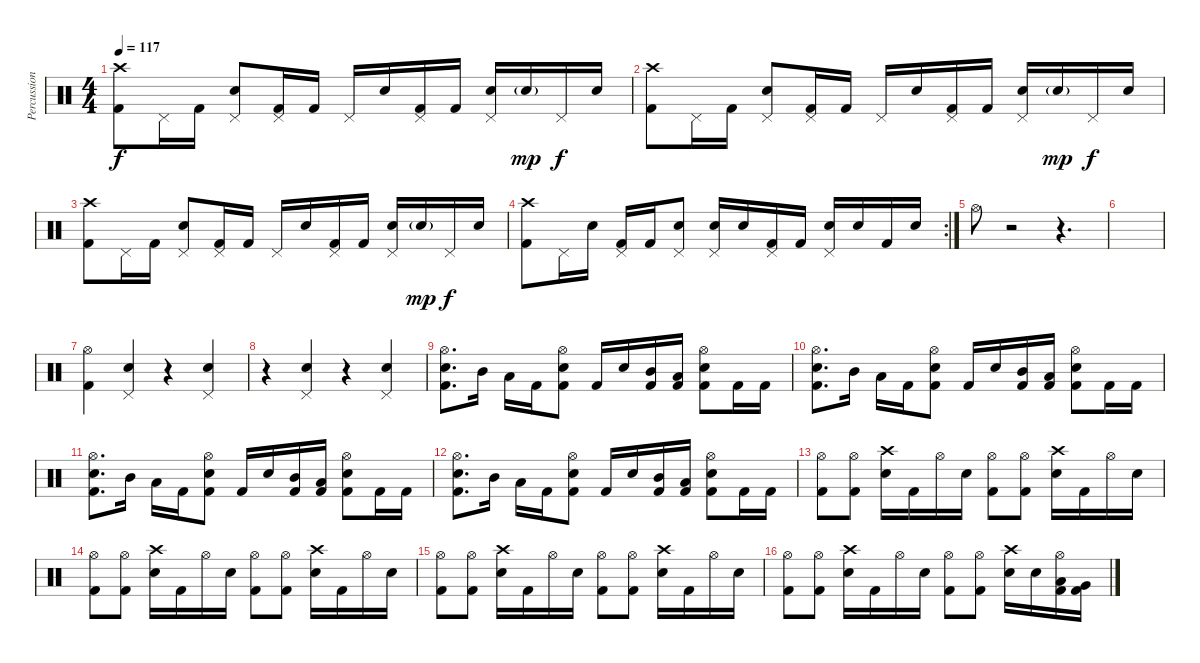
\track ("Percussion" "Percussion") {instrument percussion}
\staff {score}
\articulation defaults
\ts (4 4)
\tempo 117
\clef neutral
\ks c
("Crash high (hit)" "Kick (hit) 2").8{dy f} "Pedal Hi-Hat (hit)".16 "Kick (hit) 2".16 ("Pedal Hi-Hat (hit)" "Snare (hit) 2").8 ("Pedal Hi-Hat (hit)" "Kick (hit) 2").16 "Kick (hit) 2".16 "Pedal Hi-Hat (hit)".16 "Snare (hit) 2".16 ("Pedal Hi-Hat (hit)" "Kick (hit) 2").16 "Kick (hit) 2".16 ("Pedal Hi-Hat (hit)" "Snare (hit) 2").16 "Snare (hit) 2"{g}.16{dy mp} "Pedal Hi-Hat (hit)".16{dy f} "Snare (hit) 2".16 |
("Crash high (hit)" "Kick (hit) 2").8 "Pedal Hi-Hat (hit)".16 "Kick (hit) 2".16 ("Pedal Hi-Hat (hit)" "Snare (hit) 2").8 ("Pedal Hi-Hat (hit)" "Kick (hit) 2").16 "Kick (hit) 2".16 "Pedal Hi-Hat (hit)".16 "Snare (hit) 2".16 ("Pedal Hi-Hat (hit)" "Kick (hit) 2").16 "Kick (hit) 2".16 ("Pedal Hi-Hat (hit)" "Snare (hit) 2").16 "Snare (hit) 2"{g}.16{dy mp} "Pedal Hi-Hat (hit)".16{dy f} "Snare (hit) 2".16 |
("Crash high (hit)" "Kick (hit) 2").8 "Pedal Hi-Hat (hit)".16 "Kick (hit) 2".16 ("Pedal Hi-Hat (hit)" "Snare (hit) 2").8 ("Pedal Hi-Hat (hit)" "Kick (hit) 2").16 "Kick (hit) 2".16 "Pedal Hi-Hat (hit)".16 "Snare (hit) 2".16 ("Pedal Hi-Hat (hit)" "Kick (hit) 2").16 "Kick (hit) 2".16 ("Pedal Hi-Hat (hit)" "Snare (hit) 2").16 "Snare (hit) 2"{g}.16{dy mp} "Pedal Hi-Hat (hit)".16{dy f} "Snare (hit) 2".16 |
\rc 2
("Crash high (hit)" "Kick (hit) 2").8 "Pedal Hi-Hat (hit)".16 "Snare (hit) 2".16 ("Pedal Hi-Hat (hit)" "Kick (hit) 2").16 "Kick (hit) 2".16 ("Pedal Hi-Hat (hit)" "Snare (hit) 2").8 ("Pedal Hi-Hat (hit)" "Snare (hit) 2").16 "Snare (hit) 2".16 ("Pedal Hi-Hat (hit)" "Kick (hit) 2").16 "Kick (hit) 2".16 ("Pedal Hi-Hat (hit)" "Snare (hit) 2").16 "Snare (hit) 2".16 "Kick (hit) 2".16 "Snare (hit) 2".16 |
"Hi-Hat (open)".8 r.2 r.4{d} |
|
("Hi-Hat (open)" "Kick (hit) 2").4 ("Pedal Hi-Hat (hit)" "Snare (hit) 2").4 r.4 ("Pedal Hi-Hat (hit)" "Snare (hit) 2").4 |
r.4 ("Pedal Hi-Hat (hit)" "Snare (hit) 2").4 r.4 ("Pedal Hi-Hat (hit)" "Snare (hit) 2").4 |
("Hi-Hat (open)" "Snare (hit) 2" "Kick (hit) 2").8{d} "Mid Tom (hit)".16 "Low Tom (hit)".16 "Kick (hit) 2".16 ("Hi-Hat (open)" "Snare (hit) 2" "Kick (hit) 2").8 "Kick (hit) 2".16 "Snare (hit) 2".16 ("Mid Tom (hit)" "Kick (hit) 2").16 ("Low Tom (hit)" "Kick (hit) 2").16 ("Hi-Hat (open)" "Snare (hit) 2" "Kick (hit) 2").8 "Kick (hit) 2".16 "Kick (hit) 2".16 |
("Hi-Hat (open)" "Snare (hit) 2" "Kick (hit) 2").8{d} "Mid Tom (hit)".16 "Low Tom (hit)".16 "Kick (hit) 2".16 ("Hi-Hat (open)" "Snare (hit) 2" "Kick (hit) 2").8 "Kick (hit) 2".16 "Snare (hit) 2".16 ("Mid Tom (hit)" "Kick (hit) 2").16 ("Low Tom (hit)" "Kick (hit) 2").16 ("Hi-Hat (open)" "Snare (hit) 2" "Kick (hit) 2").8 "Kick (hit) 2".16 "Kick (hit) 2".16 |
("Hi-Hat (open)" "Snare (hit) 2" "Kick (hit) 2").8{d} "Mid Tom (hit)".16 "Low Tom (hit)".16 "Kick (hit) 2".16 ("Hi-Hat (open)" "Snare (hit) 2" "Kick (hit) 2").8 "Kick (hit) 2".16 "Snare (hit) 2".16 ("Mid Tom (hit)" "Kick (hit) 2").16 ("Low Tom (hit)" "Kick (hit) 2").16 ("Hi-Hat (open)" "Snare (hit) 2" "Kick (hit) 2").8 "Kick (hit) 2".16 "Kick (hit) 2".16 |
("Hi-Hat (open)" "Snare (hit) 2" "Kick (hit) 2").8{d} "Mid Tom (hit)".16 "Low Tom (hit)".16 "Kick (hit) 2".16 ("Hi-Hat (open)" "Snare (hit) 2" "Kick (hit) 2").8 "Kick (hit) 2".16 "Snare (hit) 2".16 ("Mid Tom (hit)" "Kick (hit) 2").16 ("Low Tom (hit)" "Kick (hit) 2").16 ("Hi-Hat (open)" "Snare (hit) 2" "Kick (hit) 2").8 "Kick (hit) 2".16 "Kick (hit) 2".16 |
("Hi-Hat (open)" "Kick (hit) 2").8 ("Hi-Hat (open)" "Kick (hit) 2").8 ("Crash high (hit)" "Snare (hit) 2").16 "Kick (hit) 2".16 "Hi-Hat (open)".16 "Snare (hit) 2".16 ("Hi-Hat (open)" "Kick (hit) 2").8 ("Hi-Hat (open)" "Kick (hit) 2").8 ("Crash high (hit)" "Snare (hit) 2").16 "Kick (hit) 2".16 "Hi-Hat (open)".16 "Snare (hit) 2".16 |
("Hi-Hat (open)" "Kick (hit) 2").8 ("Hi-Hat (open)" "Kick (hit) 2").8 ("Crash high (hit)" "Snare (hit) 2").16 "Kick (hit) 2".16 "Hi-Hat (open)".16 "Snare (hit) 2".16 ("Hi-Hat (open)" "Kick (hit) 2").8 ("Hi-Hat (open)" "Kick (hit) 2").8 ("Crash high (hit)" "Snare (hit) 2").16 "Kick (hit) 2".16 "Hi-Hat (open)".16 "Snare (hit) 2".16 |
("Hi-Hat (open)" "Kick (hit) 2").8 ("Hi-Hat (open)" "Kick (hit) 2").8 ("Crash high (hit)" "Snare (hit) 2").16 "Kick (hit) 2".16 "Hi-Hat (open)".16 "Snare (hit) 2".16 ("Hi-Hat (open)" "Kick (hit) 2").8 ("Hi-Hat (open)" "Kick (hit) 2").8 ("Crash high (hit)" "Snare (hit) 2").16 "Kick (hit) 2".16 "Hi-Hat (open)".16 "Snare (hit) 2".16 |
("Hi-Hat (open)" "Kick (hit) 2").8 ("Hi-Hat (open)" "Kick (hit) 2").8 ("Crash high (hit)" "Snare (hit) 2").16 "Kick (hit) 2".16 "Hi-Hat (open)".16 "Snare (hit) 2".16 ("Hi-Hat (open)" "Kick (hit) 2").8 ("Hi-Hat (open)" "Kick (hit) 2").8 ("Crash high (hit)" "Snare (hit) 2").16 "Snare (hit) 2".16 ("Hi-Hat (open)" "Low Tom (hit)" "Kick (hit) 2").16 ("Very Low Tom (hit)" "Kick (hit) 2").16
